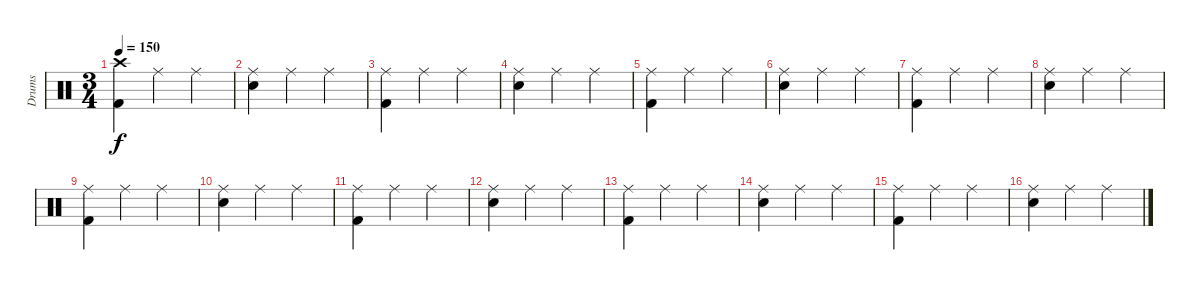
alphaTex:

\track ("Drums" "Drums") {instrument percussion}
\staff {score}
\articulation defaults
\ts (3 4)
\tempo 150
\clef neutral
\ks c
("Crash high (hit)" "Kick (hit) 2").4{dy f volume 5} "Ride (middle)".4 "Ride (middle)".4 |
("Ride (middle)" "Snare (hit) 2").4 "Ride (middle)".4 "Ride (middle)".4 |
("Ride (middle)" "Kick (hit) 2").4 "Ride (middle)".4 "Ride (middle)".4 |
("Ride (middle)" "Snare (hit) 2").4 "Ride (middle)".4 "Ride (middle)".4 |
("Ride (middle)" "Kick (hit) 2").4 "Ride (middle)".4 "Ride (middle)".4 |
("Ride (middle)" "Snare (hit) 2").4 "Ride (middle)".4 "Ride (middle)".4 |
("Ride (middle)" "Kick (hit) 2").4 "Ride (middle)".4 "Ride (middle)".4 |
("Ride (middle)" "Snare (hit) 2").4 "Ride (middle)".4 "Ride (middle)".4 |
("Ride (middle)" "Kick (hit) 2").4{volume 3} "Ride (middle)".4 "Ride (middle)".4 |
("Ride (middle)" "Snare (hit) 2").4 "Ride (middle)".4 "Ride (middle)".4 |
("Ride (middle)" "Kick (hit) 2").4 "Ride (middle)".4 "Ride (middle)".4 |
("Ride (middle)" "Snare (hit) 2").4 "Ride (middle)".4 "Ride (middle)".4 |
("Ride (middle)" "Kick (hit) 2").4 "Ride (middle)".4 "Ride (middle)".4 |
("Ride (middle)" "Snare (hit) 2").4 "Ride (middle)".4 "Ride (middle)".4 |
("Ride (middle)" "Kick (hit) 2").4 "Ride (middle)".4 "Ride (middle)".4 |
("Ride (middle)" "Snare (hit) 2").4 "Ride (middle)".4 "Ride (middle)".4
